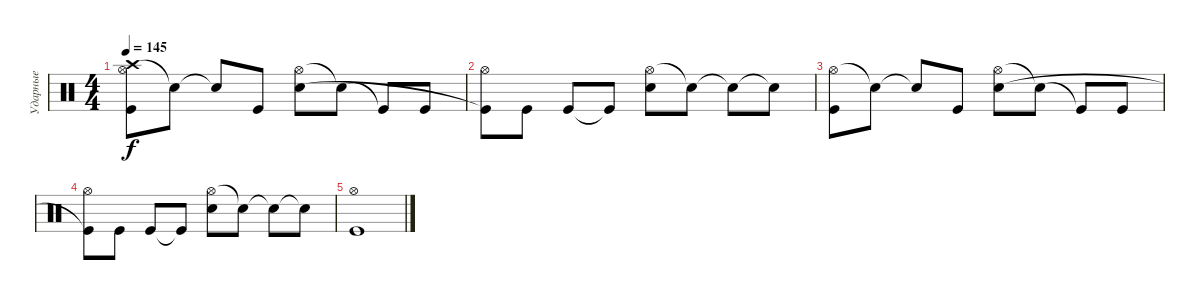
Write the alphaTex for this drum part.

\track ("Ударные" "Ударные") {instrument percussion}
\staff {score}
\articulation defaults
\ts (4 4)
\tempo 145
\clef neutral
\ks c
("Crash high (hit)" "Hi-Hat (open)" "Kick (hit)").8{dy f} "Snare (hit)"{t}.8 "Snare (hit)"{t}.8 "Kick (hit)".8 ("Hi-Hat (open)" "Snare (hit) 2").8 "Snare (hit)"{t}.8 "Kick (hit)"{t}.8 "Kick (hit)".8 |
("Hi-Hat (open)" "Kick (hit)"{t}).8 "Kick (hit)".8 "Kick (hit)".8 "Kick (hit)"{t}.8 ("Hi-Hat (open)" "Snare (hit) 2").8 "Snare (hit)"{t}.8 "Snare (hit)"{t}.8 "Snare (hit)"{t}.8 |
("Hi-Hat (open)" "Kick (hit)").8 "Snare (hit)"{t}.8 "Snare (hit)"{t}.8 "Kick (hit)".8 ("Hi-Hat (open)" "Snare (hit) 2").8 "Snare (hit)"{t}.8 "Kick (hit)"{t}.8 "Kick (hit)".8 |
("Hi-Hat (open)" "Kick (hit)"{t}).8 "Kick (hit)".8 "Kick (hit)".8 "Kick (hit)"{t}.8 ("Hi-Hat (open)" "Snare (hit) 2").8 "Snare (hit)"{t}.8 "Snare (hit)"{t}.8 "Snare (hit)"{t}.8 |
("Hi-Hat (open)" "Kick (hit)").1
